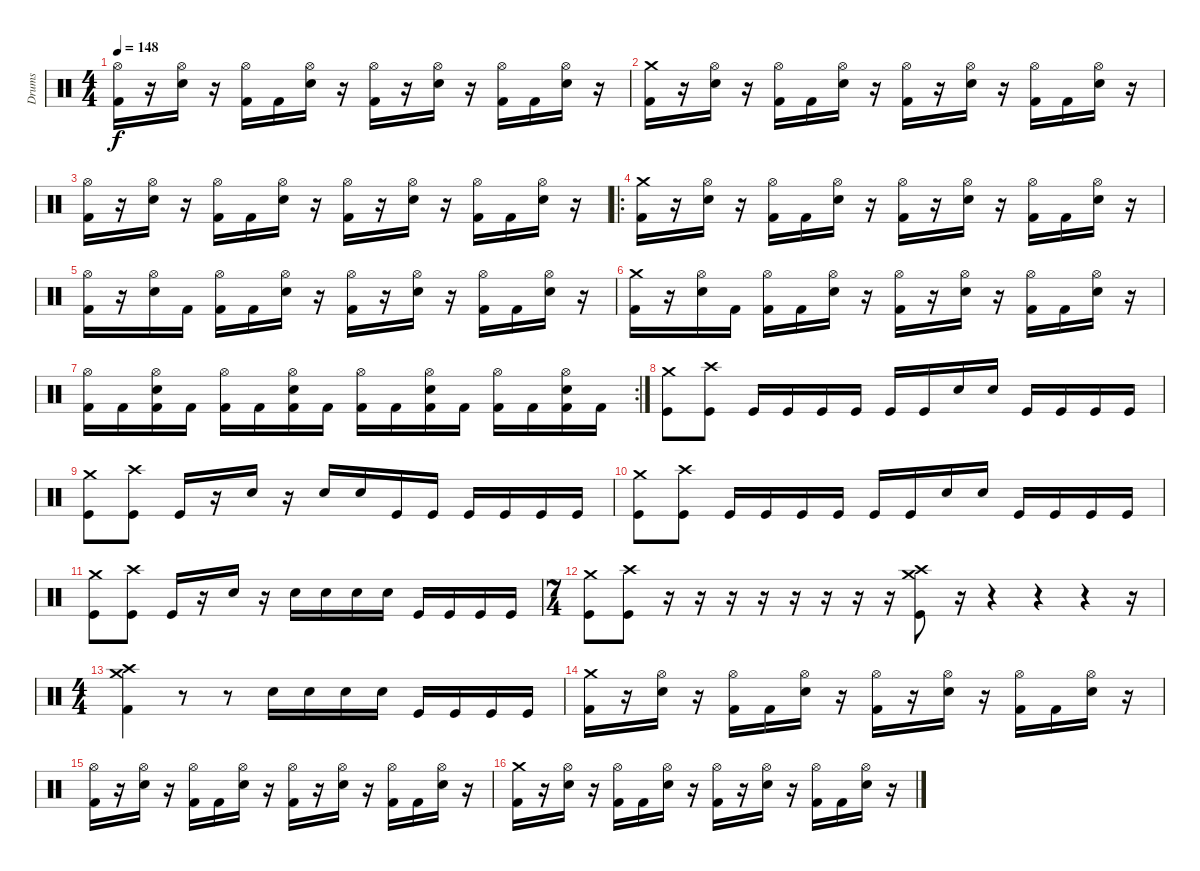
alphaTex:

\track ("Drums" "Drums") {instrument percussion}
\staff {score}
\articulation defaults
\ts (4 4)
\tempo 148
\clef neutral
\ks c
("Hi-Hat (open)" "Kick (hit) 2").16{dy f} r.16 ("Hi-Hat (open)" "Electric Snare (hit)").16 r.16 ("Hi-Hat (open)" "Kick (hit) 2").16 "Kick (hit) 2".16 ("Hi-Hat (open)" "Electric Snare (hit)").16 r.16 ("Hi-Hat (open)" "Kick (hit) 2").16 r.16 ("Hi-Hat (open)" "Electric Snare (hit)").16 r.16 ("Hi-Hat (open)" "Kick (hit) 2").16 "Kick (hit) 2".16 ("Hi-Hat (open)" "Electric Snare (hit)").16 r.16 |
("Crash medium (hit)" "Kick (hit) 2").16 r.16 ("Hi-Hat (open)" "Electric Snare (hit)").16 r.16 ("Hi-Hat (open)" "Kick (hit) 2").16 "Kick (hit) 2".16 ("Hi-Hat (open)" "Electric Snare (hit)").16 r.16 ("Hi-Hat (open)" "Kick (hit) 2").16 r.16 ("Hi-Hat (open)" "Electric Snare (hit)").16 r.16 ("Hi-Hat (open)" "Kick (hit) 2").16 "Kick (hit) 2".16 ("Hi-Hat (open)" "Electric Snare (hit)").16 r.16 |
("Hi-Hat (open)" "Kick (hit) 2").16 r.16 ("Hi-Hat (open)" "Electric Snare (hit)").16 r.16 ("Hi-Hat (open)" "Kick (hit) 2").16 "Kick (hit) 2".16 ("Hi-Hat (open)" "Electric Snare (hit)").16 r.16 ("Hi-Hat (open)" "Kick (hit) 2").16 r.16 ("Hi-Hat (open)" "Electric Snare (hit)").16 r.16 ("Hi-Hat (open)" "Kick (hit) 2").16 "Kick (hit) 2".16 ("Hi-Hat (open)" "Electric Snare (hit)").16 r.16 |
\ro
("Crash medium (hit)" "Kick (hit) 2").16 r.16 ("Hi-Hat (open)" "Electric Snare (hit)").16 r.16 ("Hi-Hat (open)" "Kick (hit) 2").16 "Kick (hit) 2".16 ("Hi-Hat (open)" "Electric Snare (hit)").16 r.16 ("Hi-Hat (open)" "Kick (hit) 2").16 r.16 ("Hi-Hat (open)" "Electric Snare (hit)").16 r.16 ("Hi-Hat (open)" "Kick (hit) 2").16 "Kick (hit) 2".16 ("Hi-Hat (open)" "Electric Snare (hit)").16 r.16 |
("Hi-Hat (open)" "Kick (hit) 2").16 r.16 ("Hi-Hat (open)" "Electric Snare (hit)").16 "Kick (hit) 2".16 ("Hi-Hat (open)" "Kick (hit) 2").16 "Kick (hit) 2".16 ("Hi-Hat (open)" "Electric Snare (hit)").16 r.16 ("Hi-Hat (open)" "Kick (hit) 2").16 r.16 ("Hi-Hat (open)" "Electric Snare (hit)").16 r.16 ("Hi-Hat (open)" "Kick (hit) 2").16 "Kick (hit) 2".16 ("Hi-Hat (open)" "Electric Snare (hit)").16 r.16 |
("Crash medium (hit)" "Kick (hit) 2").16 r.16 ("Hi-Hat (open)" "Electric Snare (hit)").16 "Kick (hit) 2".16 ("Hi-Hat (open)" "Kick (hit) 2").16 "Kick (hit) 2".16 ("Hi-Hat (open)" "Electric Snare (hit)").16 r.16 ("Hi-Hat (open)" "Kick (hit) 2").16 r.16 ("Hi-Hat (open)" "Electric Snare (hit)").16 r.16 ("Hi-Hat (open)" "Kick (hit) 2").16 "Kick (hit) 2".16 ("Hi-Hat (open)" "Electric Snare (hit)").16 r.16 |
\rc 2
("Hi-Hat (open)" "Kick (hit) 2").16 "Kick (hit) 2".16 ("Hi-Hat (open)" "Electric Snare (hit)" "Kick (hit) 2").16 "Kick (hit) 2".16 ("Hi-Hat (open)" "Kick (hit) 2").16 "Kick (hit) 2".16 ("Hi-Hat (open)" "Electric Snare (hit)" "Kick (hit) 2").16 "Kick (hit) 2".16 ("Hi-Hat (open)" "Kick (hit) 2").16 "Kick (hit) 2".16 ("Hi-Hat (open)" "Electric Snare (hit)" "Kick (hit) 2").16 "Kick (hit) 2".16 ("Hi-Hat (open)" "Kick (hit) 2").16 "Kick (hit) 2".16 ("Hi-Hat (open)" "Electric Snare (hit)" "Kick (hit) 2").16 "Kick (hit) 2".16 |
("Crash medium (hit)" "Kick (hit)").8 ("Crash high (hit)" "Kick (hit)").8 "Kick (hit)".16{balance 2} "Kick (hit)".16 "Kick (hit)".16{balance 3} "Kick (hit)".16 "Kick (hit)".16{balance 4} "Kick (hit)".16 "Electric Snare (hit)".16{balance 5} "Electric Snare (hit)".16 "Kick (hit)".16{balance 6} "Kick (hit)".16 "Kick (hit)".16{balance 7} "Kick (hit)".16 |
("Crash medium (hit)" "Kick (hit)").8{balance 8} ("Crash high (hit)" "Kick (hit)").8 "Kick (hit)".16{balance 9} r.16 "Electric Snare (hit)".16{balance 10} r.16 "Electric Snare (hit)".16{balance 11} "Electric Snare (hit)".16 "Kick (hit)".16{balance 12} "Kick (hit)".16 "Kick (hit)".16{balance 13} "Kick (hit)".16 "Kick (hit)".16{balance 14} "Kick (hit)".16 |
("Crash medium (hit)" "Kick (hit)").8{balance 13} ("Crash high (hit)" "Kick (hit)").8{balance 12} "Kick (hit)".16 "Kick (hit)".16{balance 11} "Kick (hit)".16 "Kick (hit)".16{balance 10} "Kick (hit)".16 "Kick (hit)".16{balance 9} "Electric Snare (hit)".16 "Electric Snare (hit)".16{balance 8} "Kick (hit)".16 "Kick (hit)".16{balance 7} "Kick (hit)".16{balance 6} "Kick (hit)".16{balance 5} |
("Crash medium (hit)" "Kick (hit)").8{balance 8} ("Crash high (hit)" "Kick (hit)").8 "Kick (hit)".16 r.16 "Electric Snare (hit)".16 r.16 "Electric Snare (hit)".16 "Electric Snare (hit)".16 "Electric Snare (hit)".16 "Electric Snare (hit)".16 "Kick (hit)".16 "Kick (hit)".16 "Kick (hit)".16 "Kick (hit)".16 |
\ts (7 4)
("Crash medium (hit)" "Kick (hit)").8 ("Crash high (hit)" "Kick (hit)").8 r.16 r.16{volume 0} r.16 r.16 r.16 r.16 r.16 r.16{volume 15} ("Crash high (hit)" "Crash medium (hit)" "Kick (hit)").8 r.16 r.4{volume 0} r.4 r.4 r.16{volume 15} |
\ts (4 4)
("Crash high (hit)" "Crash medium (hit)" "Kick (hit) 2").4 r.8{volume 0} r.8{volume 15} "Electric Snare (hit)".16 "Electric Snare (hit)".16 "Electric Snare (hit)".16 "Electric Snare (hit)".16 "Kick (hit)".16 "Kick (hit)".16 "Kick (hit)".16 "Kick (hit)".16 |
("Crash medium (hit)" "Kick (hit) 2").16 r.16 ("Hi-Hat (open)" "Electric Snare (hit)").16 r.16 ("Hi-Hat (open)" "Kick (hit) 2").16 "Kick (hit) 2".16 ("Hi-Hat (open)" "Electric Snare (hit)").16 r.16 ("Hi-Hat (open)" "Kick (hit) 2").16 r.16 ("Hi-Hat (open)" "Electric Snare (hit)").16 r.16 ("Hi-Hat (open)" "Kick (hit) 2").16 "Kick (hit) 2".16 ("Hi-Hat (open)" "Electric Snare (hit)").16 r.16 |
("Hi-Hat (open)" "Kick (hit) 2").16 r.16 ("Hi-Hat (open)" "Electric Snare (hit)").16 r.16 ("Hi-Hat (open)" "Kick (hit) 2").16 "Kick (hit) 2".16 ("Hi-Hat (open)" "Electric Snare (hit)").16 r.16 ("Hi-Hat (open)" "Kick (hit) 2").16 r.16 ("Hi-Hat (open)" "Electric Snare (hit)").16 r.16 ("Hi-Hat (open)" "Kick (hit) 2").16 "Kick (hit) 2".16 ("Hi-Hat (open)" "Electric Snare (hit)").16 r.16 |
("Crash medium (hit)" "Kick (hit) 2").16 r.16 ("Hi-Hat (open)" "Electric Snare (hit)").16 r.16 ("Hi-Hat (open)" "Kick (hit) 2").16 "Kick (hit) 2".16 ("Hi-Hat (open)" "Electric Snare (hit)").16 r.16 ("Hi-Hat (open)" "Kick (hit) 2").16 r.16 ("Hi-Hat (open)" "Electric Snare (hit)").16 r.16 ("Hi-Hat (open)" "Kick (hit) 2").16 "Kick (hit) 2".16 ("Hi-Hat (open)" "Electric Snare (hit)").16 r.16
